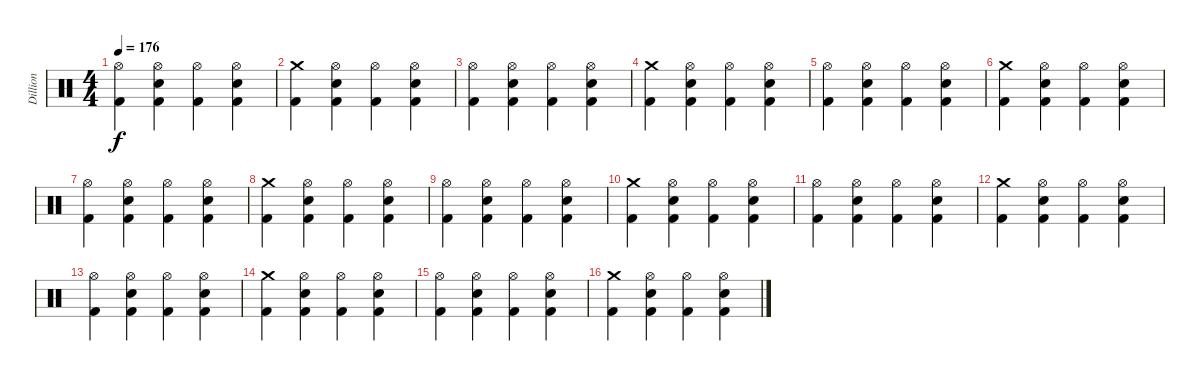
\track ("Dillion" "Dillion") {instrument percussion}
\staff {score}
\articulation defaults
\ts (4 4)
\tempo 176
\clef neutral
\ks c
("Hi-Hat (open)" "Kick (hit) 2").4{dy f} ("Hi-Hat (open)" "Electric Snare (hit)" "Kick (hit) 2").4 ("Hi-Hat (open)" "Kick (hit) 2").4 ("Hi-Hat (open)" "Electric Snare (hit)" "Kick (hit) 2").4 |
("Crash medium (hit)" "Kick (hit) 2").4 ("Hi-Hat (open)" "Electric Snare (hit)" "Kick (hit) 2").4 ("Hi-Hat (open)" "Kick (hit) 2").4 ("Hi-Hat (open)" "Electric Snare (hit)" "Kick (hit) 2").4 |
("Hi-Hat (open)" "Kick (hit) 2").4 ("Hi-Hat (open)" "Electric Snare (hit)" "Kick (hit) 2").4 ("Hi-Hat (open)" "Kick (hit) 2").4 ("Hi-Hat (open)" "Electric Snare (hit)" "Kick (hit) 2").4 |
("Crash medium (hit)" "Kick (hit) 2").4 ("Hi-Hat (open)" "Electric Snare (hit)" "Kick (hit) 2").4 ("Hi-Hat (open)" "Kick (hit) 2").4 ("Hi-Hat (open)" "Electric Snare (hit)" "Kick (hit) 2").4 |
("Hi-Hat (open)" "Kick (hit) 2").4 ("Hi-Hat (open)" "Electric Snare (hit)" "Kick (hit) 2").4 ("Hi-Hat (open)" "Kick (hit) 2").4 ("Hi-Hat (open)" "Electric Snare (hit)" "Kick (hit) 2").4 |
("Crash medium (hit)" "Kick (hit) 2").4 ("Hi-Hat (open)" "Electric Snare (hit)" "Kick (hit) 2").4 ("Hi-Hat (open)" "Kick (hit) 2").4 ("Hi-Hat (open)" "Electric Snare (hit)" "Kick (hit) 2").4 |
("Hi-Hat (open)" "Kick (hit) 2").4 ("Hi-Hat (open)" "Electric Snare (hit)" "Kick (hit) 2").4 ("Hi-Hat (open)" "Kick (hit) 2").4 ("Hi-Hat (open)" "Electric Snare (hit)" "Kick (hit) 2").4 |
("Crash medium (hit)" "Kick (hit) 2").4 ("Hi-Hat (open)" "Electric Snare (hit)" "Kick (hit) 2").4 ("Hi-Hat (open)" "Kick (hit) 2").4 ("Hi-Hat (open)" "Electric Snare (hit)" "Kick (hit) 2").4 |
("Hi-Hat (open)" "Kick (hit) 2").4 ("Hi-Hat (open)" "Electric Snare (hit)" "Kick (hit) 2").4 ("Hi-Hat (open)" "Kick (hit) 2").4 ("Hi-Hat (open)" "Electric Snare (hit)" "Kick (hit) 2").4 |
("Crash medium (hit)" "Kick (hit) 2").4 ("Hi-Hat (open)" "Electric Snare (hit)" "Kick (hit) 2").4 ("Hi-Hat (open)" "Kick (hit) 2").4 ("Hi-Hat (open)" "Electric Snare (hit)" "Kick (hit) 2").4 |
("Hi-Hat (open)" "Kick (hit) 2").4 ("Hi-Hat (open)" "Electric Snare (hit)" "Kick (hit) 2").4 ("Hi-Hat (open)" "Kick (hit) 2").4 ("Hi-Hat (open)" "Electric Snare (hit)" "Kick (hit) 2").4 |
("Crash medium (hit)" "Kick (hit) 2").4 ("Hi-Hat (open)" "Electric Snare (hit)" "Kick (hit) 2").4 ("Hi-Hat (open)" "Kick (hit) 2").4 ("Hi-Hat (open)" "Electric Snare (hit)" "Kick (hit) 2").4 |
("Hi-Hat (open)" "Kick (hit) 2").4 ("Hi-Hat (open)" "Electric Snare (hit)" "Kick (hit) 2").4 ("Hi-Hat (open)" "Kick (hit) 2").4 ("Hi-Hat (open)" "Electric Snare (hit)" "Kick (hit) 2").4 |
("Crash medium (hit)" "Kick (hit) 2").4 ("Hi-Hat (open)" "Electric Snare (hit)" "Kick (hit) 2").4 ("Hi-Hat (open)" "Kick (hit) 2").4 ("Hi-Hat (open)" "Electric Snare (hit)" "Kick (hit) 2").4 |
("Hi-Hat (open)" "Kick (hit) 2").4 ("Hi-Hat (open)" "Electric Snare (hit)" "Kick (hit) 2").4 ("Hi-Hat (open)" "Kick (hit) 2").4 ("Hi-Hat (open)" "Electric Snare (hit)" "Kick (hit) 2").4 |
("Crash medium (hit)" "Kick (hit) 2").4 ("Hi-Hat (open)" "Electric Snare (hit)" "Kick (hit) 2").4 ("Hi-Hat (open)" "Kick (hit) 2").4 ("Hi-Hat (open)" "Electric Snare (hit)" "Kick (hit) 2").4
